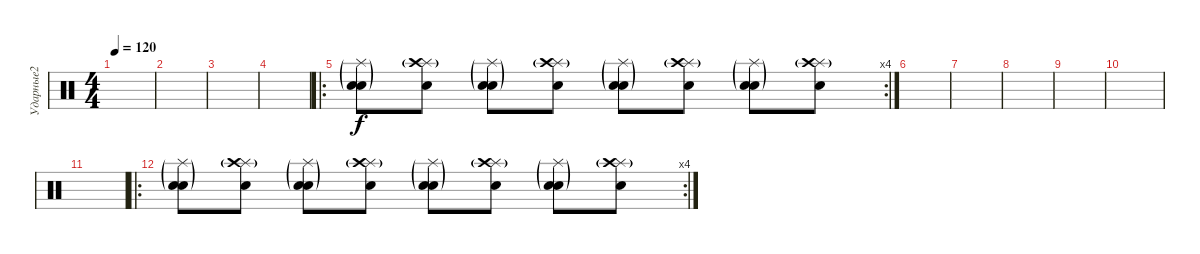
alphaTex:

\track ("Ударные2" "Ударные2") {instrument percussion bank 2}
\staff {score}
\articulation defaults
\ts (4 4)
\tempo 120
\clef neutral
\ks c
|
|
|
|
\ro
\rc 4
("Splash (hit)"{g} "Snare (hit)"{g} "Snare (hit)").8 ("Splash (hit)"{g} "Crash high (hit)"{g} "Snare (hit)").8 ("Splash (hit)"{g} "Snare (hit)"{g} "Snare (hit)").8 ("Splash (hit)"{g} "Crash high (hit)"{g} "Snare (hit)").8 ("Splash (hit)"{g} "Snare (hit)"{g} "Snare (hit)").8 ("Splash (hit)"{g} "Crash high (hit)"{g} "Snare (hit)").8 ("Splash (hit)"{g} "Snare (hit)"{g} "Snare (hit)").8 ("Splash (hit)"{g} "Crash high (hit)"{g} "Snare (hit)").8 |
|
|
|
|
|
|
\ro
\rc 4
("Splash (hit)"{g} "Snare (hit)"{g} "Snare (hit)").8 ("Splash (hit)"{g} "Crash high (hit)"{g} "Snare (hit)").8 ("Splash (hit)"{g} "Snare (hit)"{g} "Snare (hit)").8 ("Splash (hit)"{g} "Crash high (hit)"{g} "Snare (hit)").8 ("Splash (hit)"{g} "Snare (hit)"{g} "Snare (hit)").8 ("Splash (hit)"{g} "Crash high (hit)"{g} "Snare (hit)").8 ("Splash (hit)"{g} "Snare (hit)"{g} "Snare (hit)").8 ("Splash (hit)"{g} "Crash high (hit)"{g} "Snare (hit)").8
